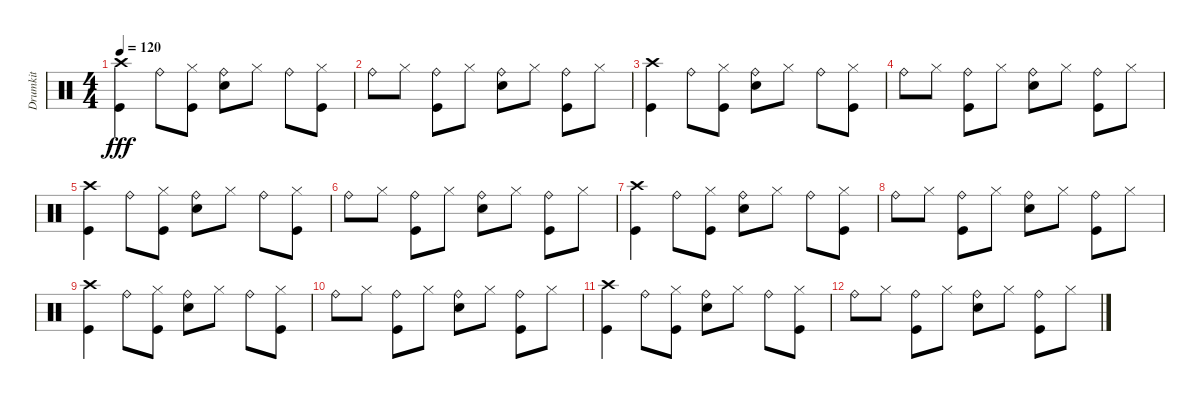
\track ("Drumkit" "Drumkit") {instrument percussion}
\staff {score}
\articulation defaults
\ts (4 4)
\tempo 120
\clef neutral
\ks c
("Kick (hit)" "Crash high (hit)").4{dy fff} "Ride (bell)".8 ("Kick (hit)" "Hi-Hat (closed)").8 ("Snare (hit) 2" "Ride (bell)").8 "Hi-Hat (closed)".8 "Ride (bell)".8 ("Hi-Hat (closed)" "Kick (hit)").8 |
"Ride (bell)".8 "Hi-Hat (closed)".8 ("Ride (bell)" "Kick (hit)").8 "Hi-Hat (closed)".8 ("Ride (bell)" "Snare (hit) 2").8 "Hi-Hat (closed)".8 ("Ride (bell)" "Kick (hit)").8 "Hi-Hat (closed)".8 |
("Kick (hit)" "Crash high (hit)").4 "Ride (bell)".8 ("Kick (hit)" "Hi-Hat (closed)").8 ("Snare (hit) 2" "Ride (bell)").8 "Hi-Hat (closed)".8 "Ride (bell)".8 ("Hi-Hat (closed)" "Kick (hit)").8 |
"Ride (bell)".8 "Hi-Hat (closed)".8 ("Ride (bell)" "Kick (hit)").8 "Hi-Hat (closed)".8 ("Ride (bell)" "Snare (hit) 2").8 "Hi-Hat (closed)".8 ("Ride (bell)" "Kick (hit)").8 "Hi-Hat (closed)".8 |
("Kick (hit)" "Crash high (hit)").4 "Ride (bell)".8 ("Kick (hit)" "Hi-Hat (closed)").8 ("Snare (hit) 2" "Ride (bell)").8 "Hi-Hat (closed)".8 "Ride (bell)".8 ("Hi-Hat (closed)" "Kick (hit)").8 |
"Ride (bell)".8 "Hi-Hat (closed)".8 ("Ride (bell)" "Kick (hit)").8 "Hi-Hat (closed)".8 ("Ride (bell)" "Snare (hit) 2").8 "Hi-Hat (closed)".8 ("Ride (bell)" "Kick (hit)").8 "Hi-Hat (closed)".8 |
("Kick (hit)" "Crash high (hit)").4 "Ride (bell)".8 ("Kick (hit)" "Hi-Hat (closed)").8 ("Snare (hit) 2" "Ride (bell)").8 "Hi-Hat (closed)".8 "Ride (bell)".8 ("Hi-Hat (closed)" "Kick (hit)").8 |
"Ride (bell)".8 "Hi-Hat (closed)".8 ("Ride (bell)" "Kick (hit)").8 "Hi-Hat (closed)".8 ("Ride (bell)" "Snare (hit) 2").8 "Hi-Hat (closed)".8 ("Ride (bell)" "Kick (hit)").8 "Hi-Hat (closed)".8 |
("Kick (hit)" "Crash high (hit)").4 "Ride (bell)".8 ("Kick (hit)" "Hi-Hat (closed)").8 ("Snare (hit) 2" "Ride (bell)").8 "Hi-Hat (closed)".8 "Ride (bell)".8 ("Hi-Hat (closed)" "Kick (hit)").8 |
"Ride (bell)".8 "Hi-Hat (closed)".8 ("Ride (bell)" "Kick (hit)").8 "Hi-Hat (closed)".8 ("Ride (bell)" "Snare (hit) 2").8 "Hi-Hat (closed)".8 ("Ride (bell)" "Kick (hit)").8 "Hi-Hat (closed)".8 |
("Kick (hit)" "Crash high (hit)").4 "Ride (bell)".8 ("Kick (hit)" "Hi-Hat (closed)").8 ("Snare (hit) 2" "Ride (bell)").8 "Hi-Hat (closed)".8 "Ride (bell)".8 ("Hi-Hat (closed)" "Kick (hit)").8 |
"Ride (bell)".8 "Hi-Hat (closed)".8 ("Ride (bell)" "Kick (hit)").8 "Hi-Hat (closed)".8 ("Ride (bell)" "Snare (hit) 2").8 "Hi-Hat (closed)".8 ("Ride (bell)" "Kick (hit)").8 "Hi-Hat (closed)".8
